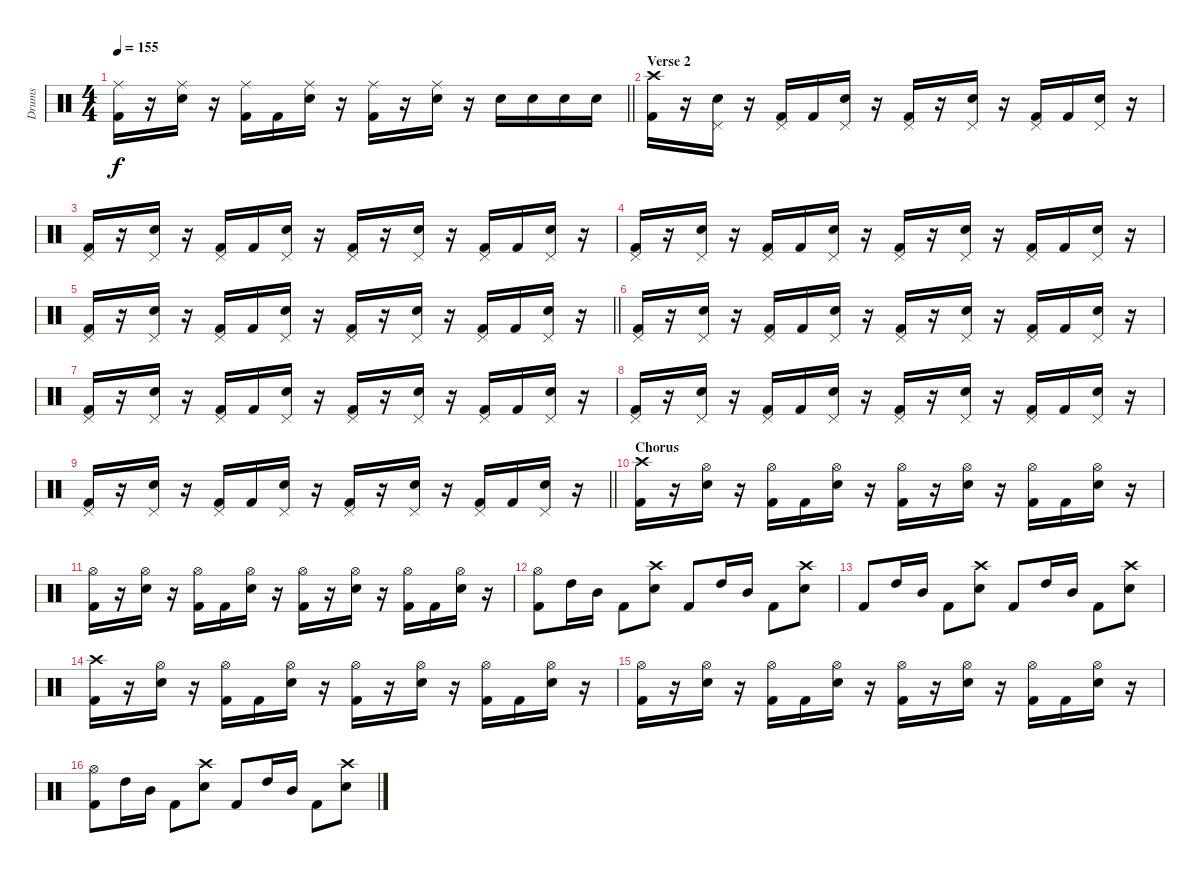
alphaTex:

\track ("Drums" "Drums") {instrument percussion}
\staff {score}
\articulation defaults
\ts (4 4)
\tempo 155
\clef neutral
\barLineRight lightlight
\ks c
("Ride (middle)" "Kick (hit) 2").16{dy f} r.16 ("Ride (middle)" "Electric Snare (hit)").16 r.16 ("Ride (middle)" "Kick (hit) 2").16 "Kick (hit) 2".16 ("Ride (middle)" "Electric Snare (hit)").16 r.16 ("Ride (middle)" "Kick (hit) 2").16 r.16 ("Ride (middle)" "Electric Snare (hit)").16 r.16 "Electric Snare (hit)".16 "Electric Snare (hit)".16 "Electric Snare (hit)".16 "Electric Snare (hit)".16 |
\section ("" "Verse 2")
("Crash high (hit)" "Kick (hit) 2").16 r.16 ("Pedal Hi-Hat (hit)" "Electric Snare (hit)").16 r.16 ("Pedal Hi-Hat (hit)" "Kick (hit) 2").16 "Kick (hit) 2".16 ("Pedal Hi-Hat (hit)" "Electric Snare (hit)").16 r.16 ("Pedal Hi-Hat (hit)" "Kick (hit) 2").16 r.16 ("Pedal Hi-Hat (hit)" "Electric Snare (hit)").16 r.16 ("Pedal Hi-Hat (hit)" "Kick (hit) 2").16 "Kick (hit) 2".16 ("Pedal Hi-Hat (hit)" "Electric Snare (hit)").16 r.16 |
("Pedal Hi-Hat (hit)" "Kick (hit) 2").16 r.16 ("Pedal Hi-Hat (hit)" "Electric Snare (hit)").16 r.16 ("Pedal Hi-Hat (hit)" "Kick (hit) 2").16 "Kick (hit) 2".16 ("Pedal Hi-Hat (hit)" "Electric Snare (hit)").16 r.16 ("Pedal Hi-Hat (hit)" "Kick (hit) 2").16 r.16 ("Pedal Hi-Hat (hit)" "Electric Snare (hit)").16 r.16 ("Pedal Hi-Hat (hit)" "Kick (hit) 2").16 "Kick (hit) 2".16 ("Pedal Hi-Hat (hit)" "Electric Snare (hit)").16 r.16 |
("Pedal Hi-Hat (hit)" "Kick (hit) 2").16 r.16 ("Pedal Hi-Hat (hit)" "Electric Snare (hit)").16 r.16 ("Pedal Hi-Hat (hit)" "Kick (hit) 2").16 "Kick (hit) 2".16 ("Pedal Hi-Hat (hit)" "Electric Snare (hit)").16 r.16 ("Pedal Hi-Hat (hit)" "Kick (hit) 2").16 r.16 ("Pedal Hi-Hat (hit)" "Electric Snare (hit)").16 r.16 ("Pedal Hi-Hat (hit)" "Kick (hit) 2").16 "Kick (hit) 2".16 ("Pedal Hi-Hat (hit)" "Electric Snare (hit)").16 r.16 |
\barLineRight lightlight
("Pedal Hi-Hat (hit)" "Kick (hit) 2").16 r.16 ("Pedal Hi-Hat (hit)" "Electric Snare (hit)").16 r.16 ("Pedal Hi-Hat (hit)" "Kick (hit) 2").16 "Kick (hit) 2".16 ("Pedal Hi-Hat (hit)" "Electric Snare (hit)").16 r.16 ("Pedal Hi-Hat (hit)" "Kick (hit) 2").16 r.16 ("Pedal Hi-Hat (hit)" "Electric Snare (hit)").16 r.16 ("Pedal Hi-Hat (hit)" "Kick (hit) 2").16 "Kick (hit) 2".16 ("Pedal Hi-Hat (hit)" "Electric Snare (hit)").16 r.16 |
("Pedal Hi-Hat (hit)" "Kick (hit) 2").16 r.16 ("Pedal Hi-Hat (hit)" "Electric Snare (hit)").16 r.16 ("Pedal Hi-Hat (hit)" "Kick (hit) 2").16 "Kick (hit) 2".16 ("Pedal Hi-Hat (hit)" "Electric Snare (hit)").16 r.16 ("Pedal Hi-Hat (hit)" "Kick (hit) 2").16 r.16 ("Pedal Hi-Hat (hit)" "Electric Snare (hit)").16 r.16 ("Pedal Hi-Hat (hit)" "Kick (hit) 2").16 "Kick (hit) 2".16 ("Pedal Hi-Hat (hit)" "Electric Snare (hit)").16 r.16 |
("Pedal Hi-Hat (hit)" "Kick (hit) 2").16 r.16 ("Pedal Hi-Hat (hit)" "Electric Snare (hit)").16 r.16 ("Pedal Hi-Hat (hit)" "Kick (hit) 2").16 "Kick (hit) 2".16 ("Pedal Hi-Hat (hit)" "Electric Snare (hit)").16 r.16 ("Pedal Hi-Hat (hit)" "Kick (hit) 2").16 r.16 ("Pedal Hi-Hat (hit)" "Electric Snare (hit)").16 r.16 ("Pedal Hi-Hat (hit)" "Kick (hit) 2").16 "Kick (hit) 2".16 ("Pedal Hi-Hat (hit)" "Electric Snare (hit)").16 r.16 |
("Pedal Hi-Hat (hit)" "Kick (hit) 2").16 r.16 ("Pedal Hi-Hat (hit)" "Electric Snare (hit)").16 r.16 ("Pedal Hi-Hat (hit)" "Kick (hit) 2").16 "Kick (hit) 2".16 ("Pedal Hi-Hat (hit)" "Electric Snare (hit)").16 r.16 ("Pedal Hi-Hat (hit)" "Kick (hit) 2").16 r.16 ("Pedal Hi-Hat (hit)" "Electric Snare (hit)").16 r.16 ("Pedal Hi-Hat (hit)" "Kick (hit) 2").16 "Kick (hit) 2".16 ("Pedal Hi-Hat (hit)" "Electric Snare (hit)").16 r.16 |
\barLineRight lightlight
("Pedal Hi-Hat (hit)" "Kick (hit) 2").16 r.16 ("Pedal Hi-Hat (hit)" "Electric Snare (hit)").16 r.16 ("Pedal Hi-Hat (hit)" "Kick (hit) 2").16 "Kick (hit) 2".16 ("Pedal Hi-Hat (hit)" "Electric Snare (hit)").16 r.16 ("Pedal Hi-Hat (hit)" "Kick (hit) 2").16 r.16 ("Pedal Hi-Hat (hit)" "Electric Snare (hit)").16 r.16 ("Pedal Hi-Hat (hit)" "Kick (hit) 2").16 "Kick (hit) 2".16 ("Pedal Hi-Hat (hit)" "Electric Snare (hit)").16 r.16 |
\section ("" "Chorus")
("Crash high (hit)" "Kick (hit) 2").16 r.16 ("Hi-Hat (open)" "Electric Snare (hit)").16 r.16 ("Hi-Hat (open)" "Kick (hit) 2").16 "Kick (hit) 2".16 ("Hi-Hat (open)" "Electric Snare (hit)").16 r.16 ("Hi-Hat (open)" "Kick (hit) 2").16 r.16 ("Hi-Hat (open)" "Electric Snare (hit)").16 r.16 ("Hi-Hat (open)" "Kick (hit) 2").16 "Kick (hit) 2".16 ("Hi-Hat (open)" "Electric Snare (hit)").16 r.16 |
("Hi-Hat (open)" "Kick (hit) 2").16 r.16 ("Hi-Hat (open)" "Electric Snare (hit)").16 r.16 ("Hi-Hat (open)" "Kick (hit) 2").16 "Kick (hit) 2".16 ("Hi-Hat (open)" "Electric Snare (hit)").16 r.16 ("Hi-Hat (open)" "Kick (hit) 2").16 r.16 ("Hi-Hat (open)" "Electric Snare (hit)").16 r.16 ("Hi-Hat (open)" "Kick (hit) 2").16 "Kick (hit) 2".16 ("Hi-Hat (open)" "Electric Snare (hit)").16 r.16 |
("Hi-Hat (open)" "Kick (hit) 2").8 "High Tom (hit)".16 "Mid Tom (hit)".16 "Kick (hit) 2".8 ("Crash high (hit)" "Electric Snare (hit)").8 "Kick (hit) 2".8 "High Tom (hit)".16 "Mid Tom (hit)".16 "Kick (hit) 2".8 ("Crash high (hit)" "Electric Snare (hit)").8 |
"Kick (hit) 2".8 "High Tom (hit)".16 "Mid Tom (hit)".16 "Kick (hit) 2".8 ("Crash high (hit)" "Electric Snare (hit)").8 "Kick (hit) 2".8 "High Tom (hit)".16 "Mid Tom (hit)".16 "Kick (hit) 2".8 ("Crash high (hit)" "Electric Snare (hit)").8 |
("Crash high (hit)" "Kick (hit) 2").16 r.16 ("Hi-Hat (open)" "Electric Snare (hit)").16 r.16 ("Hi-Hat (open)" "Kick (hit) 2").16 "Kick (hit) 2".16 ("Hi-Hat (open)" "Electric Snare (hit)").16 r.16 ("Hi-Hat (open)" "Kick (hit) 2").16 r.16 ("Hi-Hat (open)" "Electric Snare (hit)").16 r.16 ("Hi-Hat (open)" "Kick (hit) 2").16 "Kick (hit) 2".16 ("Hi-Hat (open)" "Electric Snare (hit)").16 r.16 |
("Hi-Hat (open)" "Kick (hit) 2").16 r.16 ("Hi-Hat (open)" "Electric Snare (hit)").16 r.16 ("Hi-Hat (open)" "Kick (hit) 2").16 "Kick (hit) 2".16 ("Hi-Hat (open)" "Electric Snare (hit)").16 r.16 ("Hi-Hat (open)" "Kick (hit) 2").16 r.16 ("Hi-Hat (open)" "Electric Snare (hit)").16 r.16 ("Hi-Hat (open)" "Kick (hit) 2").16 "Kick (hit) 2".16 ("Hi-Hat (open)" "Electric Snare (hit)").16 r.16 |
("Hi-Hat (open)" "Kick (hit) 2").8 "High Tom (hit)".16 "Mid Tom (hit)".16 "Kick (hit) 2".8 ("Crash high (hit)" "Electric Snare (hit)").8 "Kick (hit) 2".8 "High Tom (hit)".16 "Mid Tom (hit)".16 "Kick (hit) 2".8 ("Crash high (hit)" "Electric Snare (hit)").8
